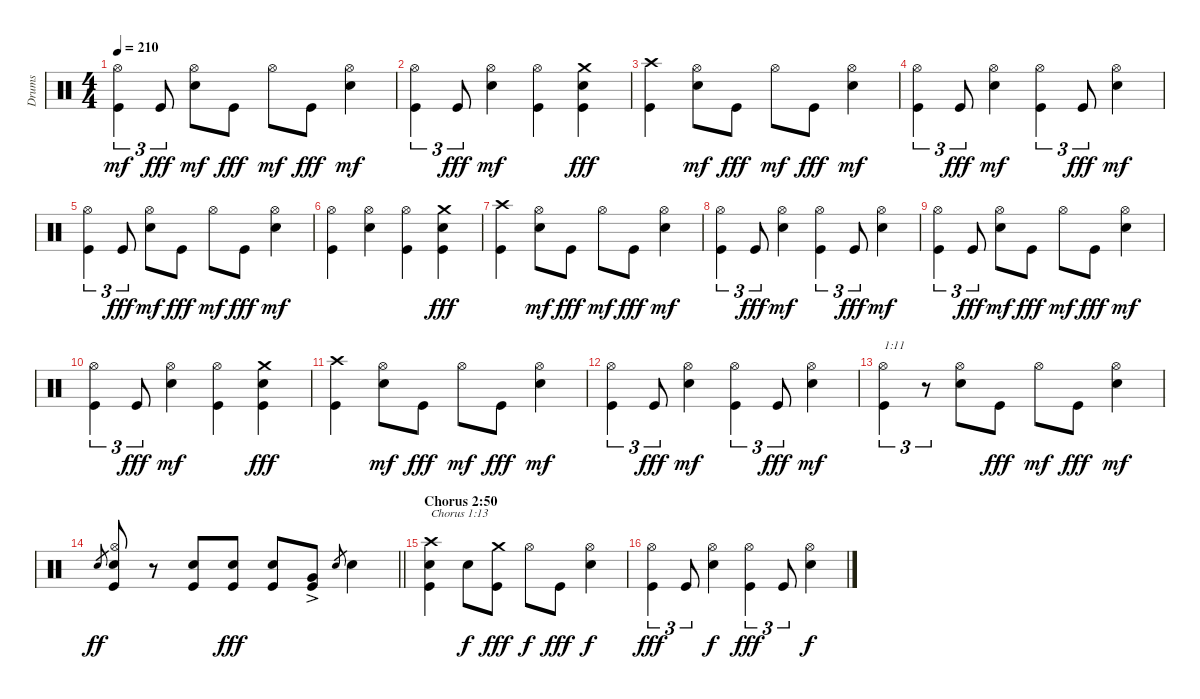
\track ("Drums" "Drums") {instrument percussion}
\staff {score}
\articulation defaults
\ts (4 4)
\tempo 210
\clef neutral
\ks c
("Kick (hit)" "Hi-Hat (open)").4{tu (3 2) dy mf} "Kick (hit)".8{tu (3 2) dy fff} ("Electric Snare (hit)" "Hi-Hat (open)").8{dy mf} "Kick (hit)".8{dy fff} "Hi-Hat (open)".8{dy mf} "Kick (hit)".8{dy fff} ("Electric Snare (hit)" "Hi-Hat (open)").4{dy mf} |
("Kick (hit)" "Hi-Hat (open)").4{tu (3 2)} "Kick (hit)".8{tu (3 2) dy fff} ("Electric Snare (hit)" "Hi-Hat (open)").4{dy mf} ("Kick (hit)" "Hi-Hat (open)").4 ("Kick (hit)" "Electric Snare (hit)" "Crash medium (hit)").4{dy fff} |
("Kick (hit)" "Crash high (hit)").4 ("Electric Snare (hit)" "Hi-Hat (open)").8{dy mf} "Kick (hit)".8{dy fff} "Hi-Hat (open)".8{dy mf} "Kick (hit)".8{dy fff} ("Electric Snare (hit)" "Hi-Hat (open)").4{dy mf} |
("Kick (hit)" "Hi-Hat (open)").4{tu (3 2)} "Kick (hit)".8{tu (3 2) dy fff} ("Electric Snare (hit)" "Hi-Hat (open)").4{dy mf} ("Kick (hit)" "Hi-Hat (open)").4{tu (3 2)} "Kick (hit)".8{tu (3 2) dy fff} ("Electric Snare (hit)" "Hi-Hat (open)").4{dy mf} |
("Kick (hit)" "Hi-Hat (open)").4{tu (3 2)} "Kick (hit)".8{tu (3 2) dy fff} ("Electric Snare (hit)" "Hi-Hat (open)").8{dy mf} "Kick (hit)".8{dy fff} "Hi-Hat (open)".8{dy mf} "Kick (hit)".8{dy fff} ("Electric Snare (hit)" "Hi-Hat (open)").4{dy mf} |
("Kick (hit)" "Hi-Hat (open)").4 ("Electric Snare (hit)" "Hi-Hat (open)").4 ("Kick (hit)" "Hi-Hat (open)").4 ("Kick (hit)" "Electric Snare (hit)" "Crash medium (hit)").4{dy fff} |
("Kick (hit)" "Crash high (hit)").4 ("Electric Snare (hit)" "Hi-Hat (open)").8{dy mf} "Kick (hit)".8{dy fff} "Hi-Hat (open)".8{dy mf} "Kick (hit)".8{dy fff} ("Electric Snare (hit)" "Hi-Hat (open)").4{dy mf} |
("Kick (hit)" "Hi-Hat (open)").4{tu (3 2)} "Kick (hit)".8{tu (3 2) dy fff} ("Electric Snare (hit)" "Hi-Hat (open)").4{dy mf} ("Kick (hit)" "Hi-Hat (open)").4{tu (3 2)} "Kick (hit)".8{tu (3 2) dy fff} ("Electric Snare (hit)" "Hi-Hat (open)").4{dy mf} |
("Kick (hit)" "Hi-Hat (open)").4{tu (3 2)} "Kick (hit)".8{tu (3 2) dy fff} ("Electric Snare (hit)" "Hi-Hat (open)").8{dy mf} "Kick (hit)".8{dy fff} "Hi-Hat (open)".8{dy mf} "Kick (hit)".8{dy fff} ("Electric Snare (hit)" "Hi-Hat (open)").4{dy mf} |
("Kick (hit)" "Hi-Hat (open)").4{tu (3 2)} "Kick (hit)".8{tu (3 2) dy fff} ("Electric Snare (hit)" "Hi-Hat (open)").4{dy mf} ("Kick (hit)" "Hi-Hat (open)").4 ("Kick (hit)" "Electric Snare (hit)" "Crash medium (hit)").4{dy fff} |
("Kick (hit)" "Crash high (hit)").4 ("Electric Snare (hit)" "Hi-Hat (open)").8{dy mf} "Kick (hit)".8{dy fff} "Hi-Hat (open)".8{dy mf} "Kick (hit)".8{dy fff} ("Electric Snare (hit)" "Hi-Hat (open)").4{dy mf} |
("Kick (hit)" "Hi-Hat (open)").4{tu (3 2)} "Kick (hit)".8{tu (3 2) dy fff} ("Electric Snare (hit)" "Hi-Hat (open)").4{dy mf} ("Kick (hit)" "Hi-Hat (open)").4{tu (3 2)} "Kick (hit)".8{tu (3 2) dy fff} ("Electric Snare (hit)" "Hi-Hat (open)").4{dy mf} |
("Kick (hit)" "Hi-Hat (open)").4{tu (3 2) txt "1:11"} r.8{tu (3 2)} ("Electric Snare (hit)" "Hi-Hat (open)").8 "Kick (hit)".8{dy fff} "Hi-Hat (open)".8{dy mf} "Kick (hit)".8{dy fff} ("Electric Snare (hit)" "Hi-Hat (open)").4{dy mf} |
\barLineRight lightlight "Electric Snare (hit)".8{gr dy ff}
("Kick (hit)" "Electric Snare (hit)" "Hi-Hat (open)").8 r.8 ("Kick (hit)" "Electric Snare (hit)").8 ("Kick (hit)" "Electric Snare (hit)").8{dy fff} ("Kick (hit)" "Electric Snare (hit)").8 ("Kick (hit)" "Very Low Tom (hit)"{ac}).8 "Electric Snare (hit)".8{gr} "Electric Snare (hit)".4 |
\section ("" "Chorus 2:50")
("Kick (hit)" "Electric Snare (hit)" "Crash high (hit)").4{txt "Chorus 1:13"} "Electric Snare (hit)".8{dy f} ("Kick (hit)" "Crash medium (hit)").8{dy fff} "Hi-Hat (open)".8{dy f} "Kick (hit)".8{dy fff} ("Electric Snare (hit)" "Hi-Hat (open)").4{dy f} |
("Kick (hit)" "Hi-Hat (open)").4{tu (3 2) dy fff} "Kick (hit)".8{tu (3 2)} ("Electric Snare (hit)" "Hi-Hat (open)").4{dy f} ("Kick (hit)" "Hi-Hat (open)").4{tu (3 2) dy fff} "Kick (hit)".8{tu (3 2)} ("Electric Snare (hit)" "Hi-Hat (open)").4{dy f}
